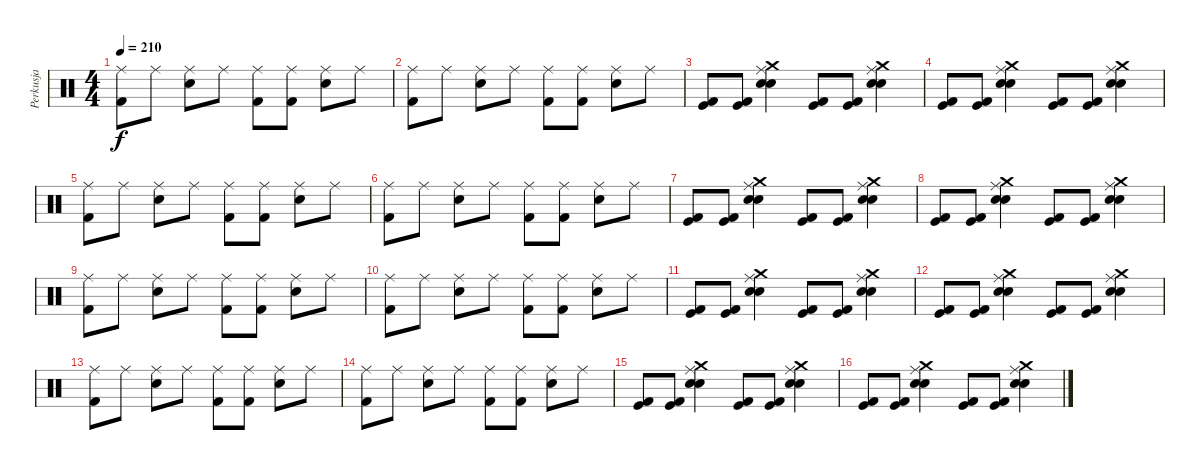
\track ("Perkusja" "Perkusja") {instrument percussion}
\staff {score}
\articulation defaults
\ts (4 4)
\tempo 210
\clef neutral
\ks c
("Ride (middle)" "Kick (hit) 2").8{dy f} "Ride (middle)".8 ("Ride (middle)" "Snare (hit) 2").8 "Ride (middle)".8 ("Ride (middle)" "Kick (hit) 2").8 ("Ride (middle)" "Kick (hit) 2").8 ("Ride (middle)" "Snare (hit) 2").8 "Ride (middle)".8 |
("Ride (middle)" "Kick (hit) 2").8 "Ride (middle)".8 ("Ride (middle)" "Snare (hit) 2").8 "Ride (middle)".8 ("Ride (middle)" "Kick (hit) 2").8 ("Ride (middle)" "Kick (hit) 2").8 ("Ride (middle)" "Snare (hit) 2").8 "Ride (middle)".8 |
("Kick (hit) 2" "Kick (hit)").8 ("Kick (hit) 2" "Kick (hit)").8 ("Snare (hit) 2" "Snare (hit) 2" "Ride (middle)" "Crash medium (hit)").4 ("Kick (hit) 2" "Kick (hit)").8 ("Kick (hit) 2" "Kick (hit)").8 ("Snare (hit) 2" "Snare (hit) 2" "Ride (middle)" "Crash medium (hit)").4 |
("Kick (hit) 2" "Kick (hit)").8 ("Kick (hit) 2" "Kick (hit)").8 ("Snare (hit) 2" "Snare (hit) 2" "Ride (middle)" "Crash medium (hit)").4 ("Kick (hit) 2" "Kick (hit)").8 ("Kick (hit) 2" "Kick (hit)").8 ("Snare (hit) 2" "Snare (hit) 2" "Ride (middle)" "Crash medium (hit)").4 |
("Ride (middle)" "Kick (hit) 2").8 "Ride (middle)".8 ("Ride (middle)" "Snare (hit) 2").8 "Ride (middle)".8 ("Ride (middle)" "Kick (hit) 2").8 ("Ride (middle)" "Kick (hit) 2").8 ("Ride (middle)" "Snare (hit) 2").8 "Ride (middle)".8 |
("Ride (middle)" "Kick (hit) 2").8 "Ride (middle)".8 ("Ride (middle)" "Snare (hit) 2").8 "Ride (middle)".8 ("Ride (middle)" "Kick (hit) 2").8 ("Ride (middle)" "Kick (hit) 2").8 ("Ride (middle)" "Snare (hit) 2").8 "Ride (middle)".8 |
("Kick (hit) 2" "Kick (hit)").8 ("Kick (hit) 2" "Kick (hit)").8 ("Snare (hit) 2" "Snare (hit) 2" "Ride (middle)" "Crash medium (hit)").4 ("Kick (hit) 2" "Kick (hit)").8 ("Kick (hit) 2" "Kick (hit)").8 ("Snare (hit) 2" "Snare (hit) 2" "Ride (middle)" "Crash medium (hit)").4 |
("Kick (hit) 2" "Kick (hit)").8 ("Kick (hit) 2" "Kick (hit)").8 ("Snare (hit) 2" "Snare (hit) 2" "Ride (middle)" "Crash medium (hit)").4 ("Kick (hit) 2" "Kick (hit)").8 ("Kick (hit) 2" "Kick (hit)").8 ("Snare (hit) 2" "Snare (hit) 2" "Ride (middle)" "Crash medium (hit)").4 |
("Ride (middle)" "Kick (hit) 2").8 "Ride (middle)".8 ("Ride (middle)" "Snare (hit) 2").8 "Ride (middle)".8 ("Ride (middle)" "Kick (hit) 2").8 ("Ride (middle)" "Kick (hit) 2").8 ("Ride (middle)" "Snare (hit) 2").8 "Ride (middle)".8 |
("Ride (middle)" "Kick (hit) 2").8 "Ride (middle)".8 ("Ride (middle)" "Snare (hit) 2").8 "Ride (middle)".8 ("Ride (middle)" "Kick (hit) 2").8 ("Ride (middle)" "Kick (hit) 2").8 ("Ride (middle)" "Snare (hit) 2").8 "Ride (middle)".8 |
("Kick (hit) 2" "Kick (hit)").8 ("Kick (hit) 2" "Kick (hit)").8 ("Snare (hit) 2" "Snare (hit) 2" "Ride (middle)" "Crash medium (hit)").4 ("Kick (hit) 2" "Kick (hit)").8 ("Kick (hit) 2" "Kick (hit)").8 ("Snare (hit) 2" "Snare (hit) 2" "Ride (middle)" "Crash medium (hit)").4 |
("Kick (hit) 2" "Kick (hit)").8 ("Kick (hit) 2" "Kick (hit)").8 ("Snare (hit) 2" "Snare (hit) 2" "Ride (middle)" "Crash medium (hit)").4 ("Kick (hit) 2" "Kick (hit)").8 ("Kick (hit) 2" "Kick (hit)").8 ("Snare (hit) 2" "Snare (hit) 2" "Ride (middle)" "Crash medium (hit)").4 |
("Ride (middle)" "Kick (hit) 2").8 "Ride (middle)".8 ("Ride (middle)" "Snare (hit) 2").8 "Ride (middle)".8 ("Ride (middle)" "Kick (hit) 2").8 ("Ride (middle)" "Kick (hit) 2").8 ("Ride (middle)" "Snare (hit) 2").8 "Ride (middle)".8 |
("Ride (middle)" "Kick (hit) 2").8 "Ride (middle)".8 ("Ride (middle)" "Snare (hit) 2").8 "Ride (middle)".8 ("Ride (middle)" "Kick (hit) 2").8 ("Ride (middle)" "Kick (hit) 2").8 ("Ride (middle)" "Snare (hit) 2").8 "Ride (middle)".8 |
("Kick (hit) 2" "Kick (hit)").8 ("Kick (hit) 2" "Kick (hit)").8 ("Snare (hit) 2" "Snare (hit) 2" "Ride (middle)" "Crash medium (hit)").4 ("Kick (hit) 2" "Kick (hit)").8 ("Kick (hit) 2" "Kick (hit)").8 ("Snare (hit) 2" "Snare (hit) 2" "Ride (middle)" "Crash medium (hit)").4 |
("Kick (hit) 2" "Kick (hit)").8 ("Kick (hit) 2" "Kick (hit)").8 ("Snare (hit) 2" "Snare (hit) 2" "Ride (middle)" "Crash medium (hit)").4 ("Kick (hit) 2" "Kick (hit)").8 ("Kick (hit) 2" "Kick (hit)").8 ("Snare (hit) 2" "Snare (hit) 2" "Ride (middle)" "Crash medium (hit)").4
